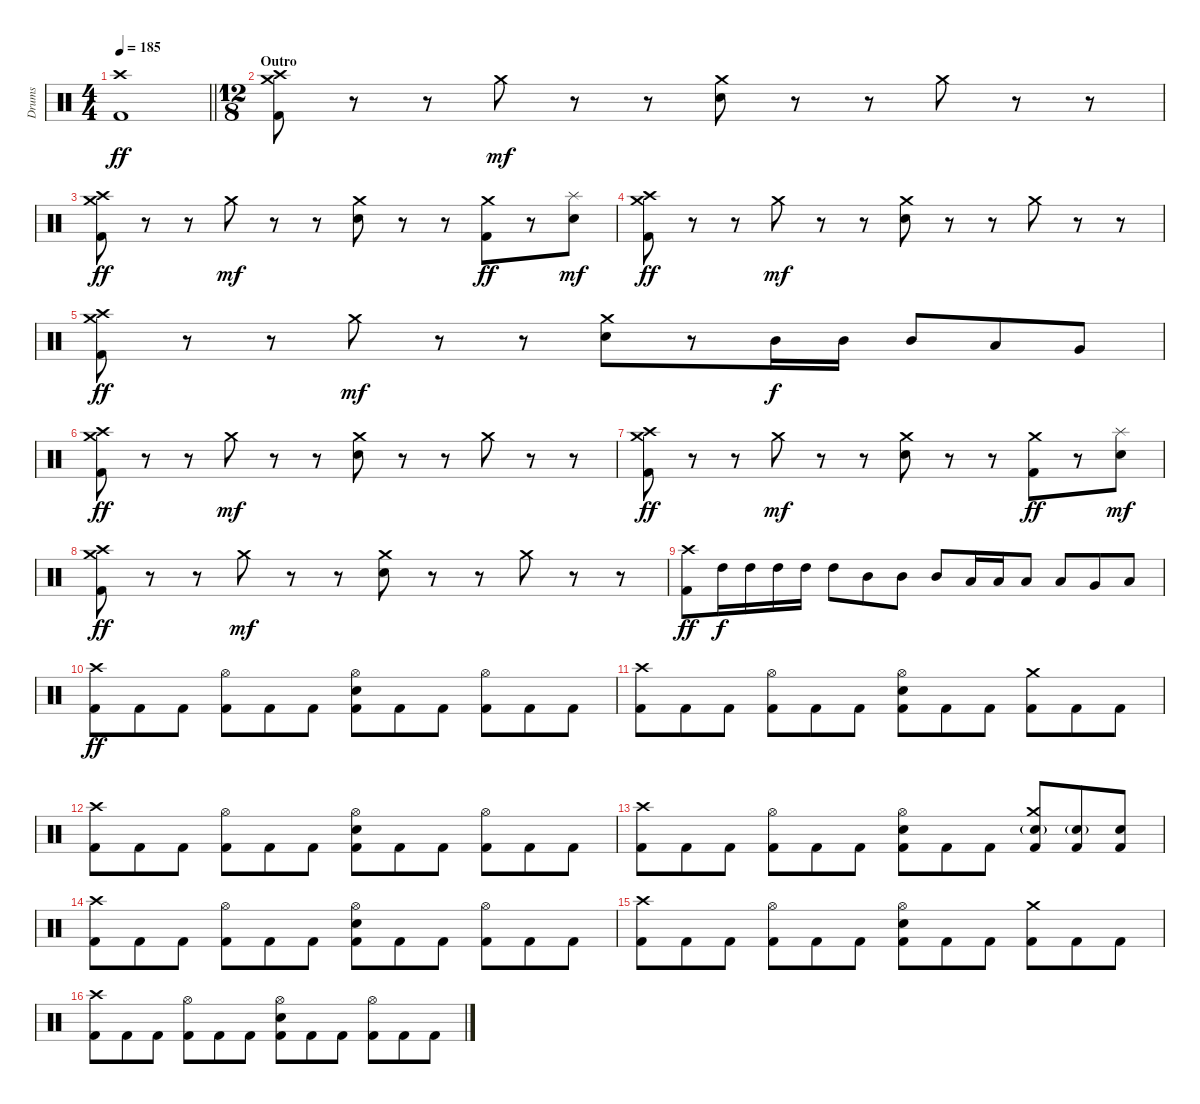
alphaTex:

\track ("Drums" "Drums") {instrument percussion}
\staff {score}
\articulation defaults
\ts (4 4)
\tempo 185
\clef neutral
\barLineRight lightlight
\ks c
("Crash high (hit)" "Kick (hit) 2").1{dy ff} |
\ts (12 8)
\section ("" "Outro")
("Crash medium (hit)" "Crash high (hit)" "Kick (hit) 2").8 r.8 r.8 "Crash medium (hit)".8{dy mf} r.8 r.8 ("Crash medium (hit)" "Electric Snare (hit)").8 r.8 r.8 "Crash medium (hit)".8 r.8 r.8 |
("Crash medium (hit)" "Crash high (hit)" "Kick (hit) 2").8{dy ff} r.8 r.8 "Crash medium (hit)".8{dy mf} r.8 r.8 ("Crash medium (hit)" "Electric Snare (hit)").8 r.8 r.8 ("Crash medium (hit)" "Kick (hit) 2").8{dy ff} r.8 ("Splash (hit)" "Electric Snare (hit)").8{dy mf} |
("Crash medium (hit)" "Crash high (hit)" "Kick (hit) 2").8{dy ff} r.8 r.8 "Crash medium (hit)".8{dy mf} r.8 r.8 ("Crash medium (hit)" "Electric Snare (hit)").8 r.8 r.8 "Crash medium (hit)".8 r.8 r.8 |
("Crash medium (hit)" "Crash high (hit)" "Kick (hit) 2").8{dy ff} r.8 r.8 "Crash medium (hit)".8{dy mf} r.8 r.8 ("Crash medium (hit)" "Electric Snare (hit)").8 r.8 "Mid Tom (hit)".16{dy f} "Mid Tom (hit)".16 "Mid Tom (hit)".8 "Low Tom (hit)".8 "Very Low Tom (hit)".8 |
("Crash medium (hit)" "Crash high (hit)" "Kick (hit) 2").8{dy ff} r.8 r.8 "Crash medium (hit)".8{dy mf} r.8 r.8 ("Crash medium (hit)" "Electric Snare (hit)").8 r.8 r.8 "Crash medium (hit)".8 r.8 r.8 |
("Crash medium (hit)" "Crash high (hit)" "Kick (hit) 2").8{dy ff} r.8 r.8 "Crash medium (hit)".8{dy mf} r.8 r.8 ("Crash medium (hit)" "Electric Snare (hit)").8 r.8 r.8 ("Crash medium (hit)" "Kick (hit) 2").8{dy ff} r.8 ("Splash (hit)" "Electric Snare (hit)").8{dy mf} |
("Crash medium (hit)" "Crash high (hit)" "Kick (hit) 2").8{dy ff} r.8 r.8 "Crash medium (hit)".8{dy mf} r.8 r.8 ("Crash medium (hit)" "Electric Snare (hit)").8 r.8 r.8 "Crash medium (hit)".8 r.8 r.8 |
("Crash high (hit)" "Kick (hit) 2").8{dy ff} "High Tom (hit)".16{dy f} "High Tom (hit)".16 "High Tom (hit)".16 "High Tom (hit)".16 "High Tom (hit)".8 "Mid Tom (hit)".8 "Mid Tom (hit)".8 "Mid Tom (hit)".8 "Low Tom (hit)".16 "Low Tom (hit)".16 "Low Tom (hit)".8 "Low Tom (hit)".8 "Very Low Tom (hit)".8 "Low Floor Tom (hit)".8 |
("Crash high (hit)" "Kick (hit) 2").8{dy ff} "Kick (hit) 2".8 "Kick (hit) 2".8 ("Hi-Hat (open)" "Kick (hit) 2").8 "Kick (hit) 2".8 "Kick (hit) 2".8 ("Hi-Hat (open)" "Electric Snare (hit)" "Kick (hit) 2").8 "Kick (hit) 2".8 "Kick (hit) 2".8 ("Hi-Hat (open)" "Kick (hit) 2").8 "Kick (hit) 2".8 "Kick (hit) 2".8 |
("Crash high (hit)" "Kick (hit) 2").8 "Kick (hit) 2".8 "Kick (hit) 2".8 ("Hi-Hat (open)" "Kick (hit) 2").8 "Kick (hit) 2".8 "Kick (hit) 2".8 ("Hi-Hat (open)" "Electric Snare (hit)" "Kick (hit) 2").8 "Kick (hit) 2".8 "Kick (hit) 2".8 ("Crash medium (hit)" "Kick (hit) 2").8 "Kick (hit) 2".8 "Kick (hit) 2".8 |
("Crash high (hit)" "Kick (hit) 2").8 "Kick (hit) 2".8 "Kick (hit) 2".8 ("Hi-Hat (open)" "Kick (hit) 2").8 "Kick (hit) 2".8 "Kick (hit) 2".8 ("Hi-Hat (open)" "Electric Snare (hit)" "Kick (hit) 2").8 "Kick (hit) 2".8 "Kick (hit) 2".8 ("Hi-Hat (open)" "Kick (hit) 2").8 "Kick (hit) 2".8 "Kick (hit) 2".8 |
("Crash high (hit)" "Kick (hit) 2").8 "Kick (hit) 2".8 "Kick (hit) 2".8 ("Hi-Hat (open)" "Kick (hit) 2").8 "Kick (hit) 2".8 "Kick (hit) 2".8 ("Hi-Hat (open)" "Electric Snare (hit)" "Kick (hit) 2").8 "Kick (hit) 2".8 "Kick (hit) 2".8 ("Crash medium (hit)" "Electric Snare (hit)"{g} "Kick (hit) 2").8 ("Electric Snare (hit)"{g} "Kick (hit) 2").8 ("Electric Snare (hit)" "Kick (hit) 2").8 |
("Crash high (hit)" "Kick (hit) 2").8 "Kick (hit) 2".8 "Kick (hit) 2".8 ("Hi-Hat (open)" "Kick (hit) 2").8 "Kick (hit) 2".8 "Kick (hit) 2".8 ("Hi-Hat (open)" "Electric Snare (hit)" "Kick (hit) 2").8 "Kick (hit) 2".8 "Kick (hit) 2".8 ("Hi-Hat (open)" "Kick (hit) 2").8 "Kick (hit) 2".8 "Kick (hit) 2".8 |
("Crash high (hit)" "Kick (hit) 2").8 "Kick (hit) 2".8 "Kick (hit) 2".8 ("Hi-Hat (open)" "Kick (hit) 2").8 "Kick (hit) 2".8 "Kick (hit) 2".8 ("Hi-Hat (open)" "Electric Snare (hit)" "Kick (hit) 2").8 "Kick (hit) 2".8 "Kick (hit) 2".8 ("Crash medium (hit)" "Kick (hit) 2").8 "Kick (hit) 2".8 "Kick (hit) 2".8 |
("Crash high (hit)" "Kick (hit) 2").8 "Kick (hit) 2".8 "Kick (hit) 2".8 ("Hi-Hat (open)" "Kick (hit) 2").8 "Kick (hit) 2".8 "Kick (hit) 2".8 ("Hi-Hat (open)" "Electric Snare (hit)" "Kick (hit) 2").8 "Kick (hit) 2".8 "Kick (hit) 2".8 ("Hi-Hat (open)" "Kick (hit) 2").8 "Kick (hit) 2".8 "Kick (hit) 2".8
